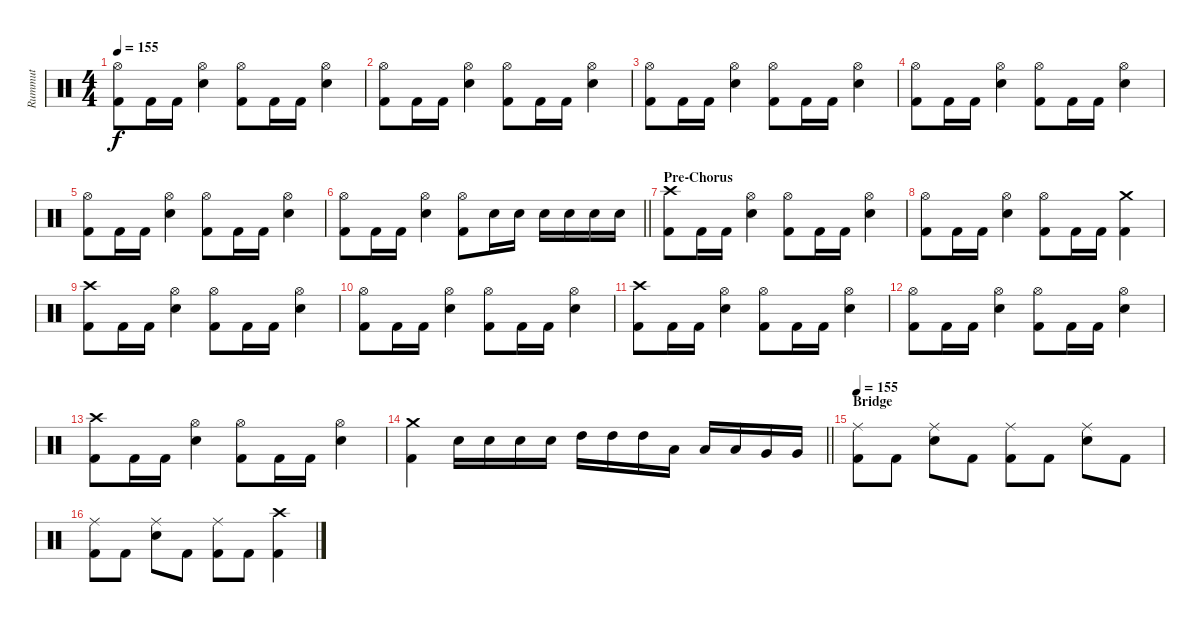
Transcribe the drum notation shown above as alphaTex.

\track ("Rummut" "Rummut") {instrument percussion}
\staff {score}
\articulation defaults
\ts (4 4)
\tempo 155
\clef neutral
\ks c
("Hi-Hat (open)" "Kick (hit) 2").8{dy f} "Kick (hit) 2".16 "Kick (hit) 2".16 ("Hi-Hat (open)" "Electric Snare (hit)").4 ("Hi-Hat (open)" "Kick (hit) 2").8 "Kick (hit) 2".16 "Kick (hit) 2".16 ("Hi-Hat (open)" "Electric Snare (hit)").4 |
("Hi-Hat (open)" "Kick (hit) 2").8 "Kick (hit) 2".16 "Kick (hit) 2".16 ("Hi-Hat (open)" "Electric Snare (hit)").4 ("Hi-Hat (open)" "Kick (hit) 2").8 "Kick (hit) 2".16 "Kick (hit) 2".16 ("Hi-Hat (open)" "Electric Snare (hit)").4 |
("Hi-Hat (open)" "Kick (hit) 2").8 "Kick (hit) 2".16 "Kick (hit) 2".16 ("Hi-Hat (open)" "Electric Snare (hit)").4 ("Hi-Hat (open)" "Kick (hit) 2").8 "Kick (hit) 2".16 "Kick (hit) 2".16 ("Hi-Hat (open)" "Electric Snare (hit)").4 |
("Hi-Hat (open)" "Kick (hit) 2").8 "Kick (hit) 2".16 "Kick (hit) 2".16 ("Hi-Hat (open)" "Electric Snare (hit)").4 ("Hi-Hat (open)" "Kick (hit) 2").8 "Kick (hit) 2".16 "Kick (hit) 2".16 ("Hi-Hat (open)" "Electric Snare (hit)").4 |
("Hi-Hat (open)" "Kick (hit) 2").8 "Kick (hit) 2".16 "Kick (hit) 2".16 ("Hi-Hat (open)" "Electric Snare (hit)").4 ("Hi-Hat (open)" "Kick (hit) 2").8 "Kick (hit) 2".16 "Kick (hit) 2".16 ("Hi-Hat (open)" "Electric Snare (hit)").4 |
\barLineRight lightlight
("Hi-Hat (open)" "Kick (hit) 2").8 "Kick (hit) 2".16 "Kick (hit) 2".16 ("Hi-Hat (open)" "Electric Snare (hit)").4 ("Hi-Hat (open)" "Kick (hit) 2").8 "Electric Snare (hit)".16 "Electric Snare (hit)".16 "Electric Snare (hit)".16 "Electric Snare (hit)".16 "Electric Snare (hit)".16 "Electric Snare (hit)".16 |
\section ("" "Pre-Chorus")
("Crash high (hit)" "Kick (hit) 2").8 "Kick (hit) 2".16 "Kick (hit) 2".16 ("Hi-Hat (open)" "Electric Snare (hit)").4 ("Hi-Hat (open)" "Kick (hit) 2").8 "Kick (hit) 2".16 "Kick (hit) 2".16 ("Hi-Hat (open)" "Electric Snare (hit)").4 |
("Hi-Hat (open)" "Kick (hit) 2").8 "Kick (hit) 2".16 "Kick (hit) 2".16 ("Hi-Hat (open)" "Electric Snare (hit)").4 ("Hi-Hat (open)" "Kick (hit) 2").8 "Kick (hit) 2".16 "Kick (hit) 2".16 ("Crash medium (hit)" "Kick (hit) 2").4 |
("Crash high (hit)" "Kick (hit) 2").8 "Kick (hit) 2".16 "Kick (hit) 2".16 ("Hi-Hat (open)" "Electric Snare (hit)").4 ("Hi-Hat (open)" "Kick (hit) 2").8 "Kick (hit) 2".16 "Kick (hit) 2".16 ("Hi-Hat (open)" "Electric Snare (hit)").4 |
("Hi-Hat (open)" "Kick (hit) 2").8 "Kick (hit) 2".16 "Kick (hit) 2".16 ("Hi-Hat (open)" "Electric Snare (hit)").4 ("Hi-Hat (open)" "Kick (hit) 2").8 "Kick (hit) 2".16 "Kick (hit) 2".16 ("Hi-Hat (open)" "Electric Snare (hit)").4 |
("Crash high (hit)" "Kick (hit) 2").8 "Kick (hit) 2".16 "Kick (hit) 2".16 ("Hi-Hat (open)" "Electric Snare (hit)").4 ("Hi-Hat (open)" "Kick (hit) 2").8 "Kick (hit) 2".16 "Kick (hit) 2".16 ("Hi-Hat (open)" "Electric Snare (hit)").4 |
("Hi-Hat (open)" "Kick (hit) 2").8 "Kick (hit) 2".16 "Kick (hit) 2".16 ("Hi-Hat (open)" "Electric Snare (hit)").4 ("Hi-Hat (open)" "Kick (hit) 2").8 "Kick (hit) 2".16 "Kick (hit) 2".16 ("Hi-Hat (open)" "Electric Snare (hit)").4 |
("Crash high (hit)" "Kick (hit) 2").8 "Kick (hit) 2".16 "Kick (hit) 2".16 ("Hi-Hat (open)" "Electric Snare (hit)").4 ("Hi-Hat (open)" "Kick (hit) 2").8 "Kick (hit) 2".16 "Kick (hit) 2".16 ("Hi-Hat (open)" "Electric Snare (hit)").4 |
\barLineRight lightlight
("Crash medium (hit)" "Kick (hit) 2").4 "Electric Snare (hit)".16 "Electric Snare (hit)".16 "Electric Snare (hit)".16 "Electric Snare (hit)".16 "High Tom (hit)".16 "High Tom (hit)".16 "High Tom (hit)".16 "Low Tom (hit)".16 "Low Tom (hit)".16 "Low Tom (hit)".16 "Very Low Tom (hit)".16 "Very Low Tom (hit)".16 |
\section ("" "Bridge")
\tempo 155
("Ride (middle)" "Kick (hit) 2").8 "Kick (hit) 2".8 ("Ride (middle)" "Electric Snare (hit)").8 "Kick (hit) 2".8 ("Ride (middle)" "Kick (hit) 2").8 "Kick (hit) 2".8 ("Ride (middle)" "Electric Snare (hit)").8 "Kick (hit) 2".8 |
("Ride (middle)" "Kick (hit) 2").8 "Kick (hit) 2".8 ("Ride (middle)" "Electric Snare (hit)").8 "Kick (hit) 2".8 ("Ride (middle)" "Kick (hit) 2").8 "Kick (hit) 2".8 ("Crash high (hit)" "Kick (hit) 2").4
